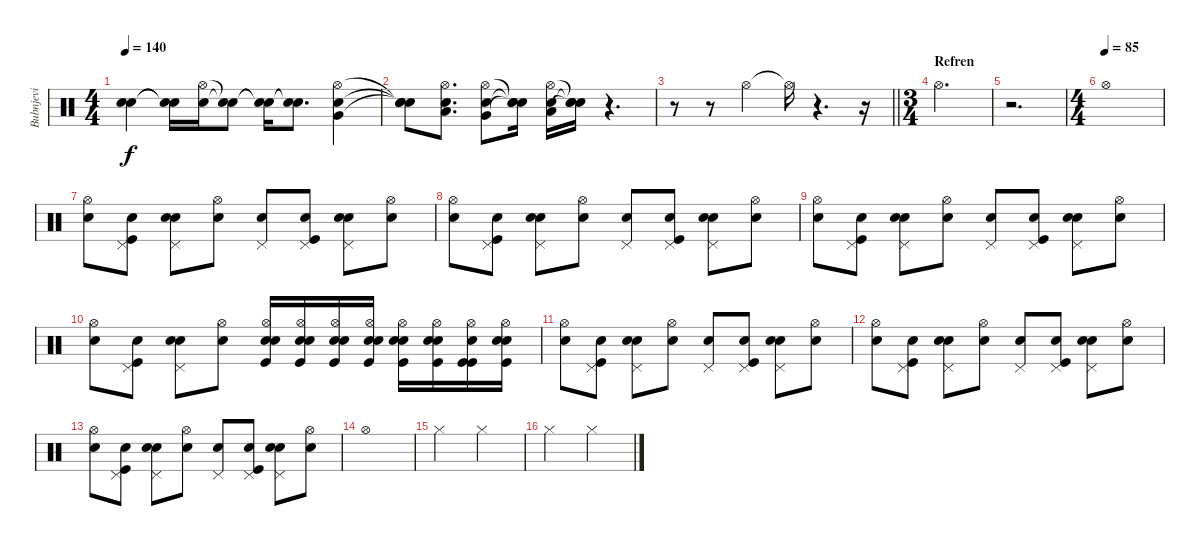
\track ("Bubnjevi" "Bubnjevi") {instrument percussion}
\staff {score}
\articulation defaults
\ts (4 4)
\tempo 140
\clef neutral
\ks c
("Snare (hit)"{t} "Snare (hit)"{t}).4{dy f} ("Snare (hit)"{t} "Snare (hit)"{t}).16 ("Hi-Hat (open)" "Electric Snare (hit)").16 ("Snare (hit)"{t} "Snare (hit)"{t}).8 ("Snare (hit)"{t} "Snare (hit)"{t}).16 ("Snare (hit)"{t} "Snare (hit)"{t}).8{d} ("Hi-Hat (open)" "Electric Snare (hit)" "Very Low Tom (hit)").4 |
("Snare (hit)"{t} "Snare (hit)"{t} "Snare (hit)"{t}).8 ("Hi-Hat (open)" "Low Tom (hit)" "Electric Snare (hit)").8{d} ("Hi-Hat (open)" "Very Low Tom (hit)" "Electric Snare (hit)").8 ("Snare (hit)"{t} "Snare (hit)"{t} "Snare (hit)"{t}).16 ("Hi-Hat (open)" "Low Tom (hit)" "Electric Snare (hit)").16 ("Snare (hit)"{t} "Snare (hit)"{t} "Snare (hit)"{t}).16 r.4{d} |
\barLineRight lightlight
r.8 r.8 "Hi-Hat (open)".4 "Hi-Hat (open)"{t}.16 r.4{d} r.16 |
\ts (3 4)
\section ("" "Refren")
"Hi-Hat (open)".2{d} |
r.2{d} |
\ts (4 4)
\tempo (85)
"Hi-Hat (open)".1 |
("Hi-Hat (open)" "Electric Snare (hit)").8 ("Pedal Hi-Hat (hit)" "Kick (hit)" "Electric Snare (hit)").8 ("Pedal Hi-Hat (hit)" "Snare (hit) 2" "Electric Snare (hit)").8 ("Hi-Hat (open)" "Electric Snare (hit)").8 ("Pedal Hi-Hat (hit)" "Electric Snare (hit)").8 ("Pedal Hi-Hat (hit)" "Kick (hit)" "Electric Snare (hit)").8 ("Pedal Hi-Hat (hit)" "Snare (hit) 2" "Electric Snare (hit)").8 ("Hi-Hat (open)" "Electric Snare (hit)").8 |
("Hi-Hat (open)" "Electric Snare (hit)").8 ("Pedal Hi-Hat (hit)" "Kick (hit)" "Electric Snare (hit)").8 ("Pedal Hi-Hat (hit)" "Snare (hit) 2" "Electric Snare (hit)").8 ("Hi-Hat (open)" "Electric Snare (hit)").8 ("Pedal Hi-Hat (hit)" "Electric Snare (hit)").8 ("Pedal Hi-Hat (hit)" "Kick (hit)" "Electric Snare (hit)").8 ("Pedal Hi-Hat (hit)" "Snare (hit) 2" "Electric Snare (hit)").8 ("Hi-Hat (open)" "Electric Snare (hit)").8 |
("Hi-Hat (open)" "Electric Snare (hit)").8 ("Pedal Hi-Hat (hit)" "Kick (hit)" "Electric Snare (hit)").8 ("Pedal Hi-Hat (hit)" "Snare (hit) 2" "Electric Snare (hit)").8 ("Hi-Hat (open)" "Electric Snare (hit)").8 ("Pedal Hi-Hat (hit)" "Electric Snare (hit)").8 ("Pedal Hi-Hat (hit)" "Kick (hit)" "Electric Snare (hit)").8 ("Pedal Hi-Hat (hit)" "Snare (hit) 2" "Electric Snare (hit)").8 ("Hi-Hat (open)" "Electric Snare (hit)").8 |
("Hi-Hat (open)" "Electric Snare (hit)").8 ("Pedal Hi-Hat (hit)" "Kick (hit)" "Electric Snare (hit)").8 ("Pedal Hi-Hat (hit)" "Snare (hit) 2" "Electric Snare (hit)").8 ("Hi-Hat (open)" "Electric Snare (hit)").8 ("Hi-Hat (open)" "Snare (hit) 2" "Kick (hit)" "Electric Snare (hit)").16 ("Hi-Hat (open)" "Snare (hit) 2" "Kick (hit)" "Electric Snare (hit)").16 ("Hi-Hat (open)" "Snare (hit) 2" "Kick (hit)" "Electric Snare (hit)").16 ("Hi-Hat (open)" "Kick (hit)" "Snare (hit) 2" "Electric Snare (hit)").16 ("Hi-Hat (open)" "Kick (hit)" "Snare (hit) 2" "Electric Snare (hit)").16 ("Hi-Hat (open)" "Kick (hit)" "Snare (hit) 2" "Electric Snare (hit)").16 ("Hi-Hat (open)" "Kick (hit)" "Kick (hit)" "Electric Snare (hit)").16 ("Hi-Hat (open)" "Kick (hit)" "Snare (hit) 2" "Electric Snare (hit)").16 |
("Hi-Hat (open)" "Electric Snare (hit)").8 ("Pedal Hi-Hat (hit)" "Kick (hit)" "Electric Snare (hit)").8 ("Pedal Hi-Hat (hit)" "Snare (hit) 2" "Electric Snare (hit)").8 ("Hi-Hat (open)" "Electric Snare (hit)").8 ("Pedal Hi-Hat (hit)" "Electric Snare (hit)").8 ("Pedal Hi-Hat (hit)" "Kick (hit)" "Electric Snare (hit)").8 ("Pedal Hi-Hat (hit)" "Snare (hit) 2" "Electric Snare (hit)").8 ("Hi-Hat (open)" "Electric Snare (hit)").8 |
("Hi-Hat (open)" "Electric Snare (hit)").8 ("Pedal Hi-Hat (hit)" "Kick (hit)" "Electric Snare (hit)").8 ("Pedal Hi-Hat (hit)" "Snare (hit) 2" "Electric Snare (hit)").8 ("Hi-Hat (open)" "Electric Snare (hit)").8 ("Pedal Hi-Hat (hit)" "Electric Snare (hit)").8 ("Pedal Hi-Hat (hit)" "Kick (hit)" "Electric Snare (hit)").8 ("Pedal Hi-Hat (hit)" "Snare (hit) 2" "Electric Snare (hit)").8 ("Hi-Hat (open)" "Electric Snare (hit)").8 |
("Hi-Hat (open)" "Electric Snare (hit)").8 ("Pedal Hi-Hat (hit)" "Kick (hit)" "Electric Snare (hit)").8 ("Pedal Hi-Hat (hit)" "Snare (hit) 2" "Electric Snare (hit)").8 ("Hi-Hat (open)" "Electric Snare (hit)").8 ("Pedal Hi-Hat (hit)" "Electric Snare (hit)").8 ("Pedal Hi-Hat (hit)" "Kick (hit)" "Electric Snare (hit)").8 ("Pedal Hi-Hat (hit)" "Snare (hit) 2" "Electric Snare (hit)").8 ("Hi-Hat (open)" "Electric Snare (hit)").8 |
"Hi-Hat (open)".1 |
"Hi-Hat (closed)".2 "Hi-Hat (closed)".2 |
"Hi-Hat (closed)".2 "Hi-Hat (closed)".2
